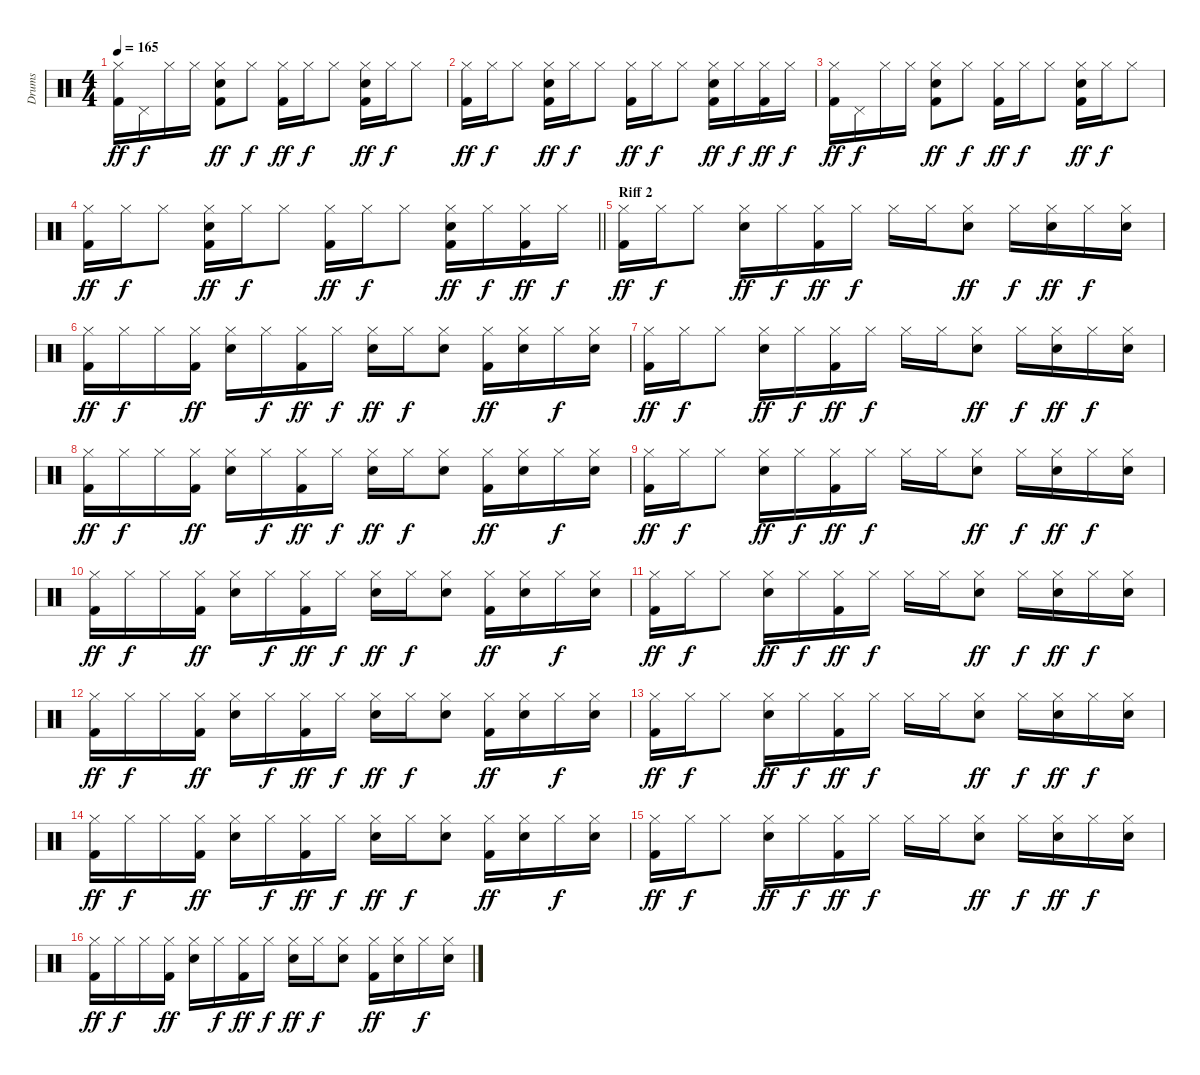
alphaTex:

\track ("Drums" "Drums") {instrument percussion}
\staff {score}
\articulation defaults
\ts (4 4)
\tempo 165
\clef neutral
\ks c
("Kick (hit) 2" "Hi-Hat (closed)").16{dy ff} "Pedal Hi-Hat (hit)".16{dy f} "Hi-Hat (closed)".16 "Hi-Hat (closed)".16 ("Kick (hit) 2" "Snare (hit) 2" "Hi-Hat (closed)").8{dy ff} "Hi-Hat (closed)".8{dy f} ("Kick (hit) 2" "Hi-Hat (closed)").16{dy ff} "Hi-Hat (closed)".16{dy f} "Hi-Hat (closed)".8 ("Kick (hit) 2" "Snare (hit) 2" "Hi-Hat (closed)").16{dy ff} "Hi-Hat (closed)".16{dy f} "Hi-Hat (closed)".8 |
("Kick (hit) 2" "Hi-Hat (closed)").16{dy ff} "Hi-Hat (closed)".16{dy f} "Hi-Hat (closed)".8 ("Kick (hit) 2" "Snare (hit) 2" "Hi-Hat (closed)").16{dy ff} "Hi-Hat (closed)".16{dy f} "Hi-Hat (closed)".8 ("Kick (hit) 2" "Hi-Hat (closed)").16{dy ff} "Hi-Hat (closed)".16{dy f} "Hi-Hat (closed)".8 ("Kick (hit) 2" "Snare (hit) 2" "Hi-Hat (closed)").16{dy ff} "Hi-Hat (closed)".16{dy f} ("Kick (hit) 2" "Hi-Hat (closed)").16{dy ff} "Hi-Hat (closed)".16{dy f} |
("Kick (hit) 2" "Hi-Hat (closed)").16{dy ff} "Pedal Hi-Hat (hit)".16{dy f} "Hi-Hat (closed)".16 "Hi-Hat (closed)".16 ("Kick (hit) 2" "Snare (hit) 2" "Hi-Hat (closed)").8{dy ff} "Hi-Hat (closed)".8{dy f} ("Kick (hit) 2" "Hi-Hat (closed)").16{dy ff} "Hi-Hat (closed)".16{dy f} "Hi-Hat (closed)".8 ("Kick (hit) 2" "Snare (hit) 2" "Hi-Hat (closed)").16{dy ff} "Hi-Hat (closed)".16{dy f} "Hi-Hat (closed)".8 |
\barLineRight lightlight
("Kick (hit) 2" "Hi-Hat (closed)").16{dy ff} "Hi-Hat (closed)".16{dy f} "Hi-Hat (closed)".8 ("Kick (hit) 2" "Snare (hit) 2" "Hi-Hat (closed)").16{dy ff} "Hi-Hat (closed)".16{dy f} "Hi-Hat (closed)".8 ("Kick (hit) 2" "Hi-Hat (closed)").16{dy ff} "Hi-Hat (closed)".16{dy f} "Hi-Hat (closed)".8 ("Kick (hit) 2" "Snare (hit) 2" "Hi-Hat (closed)").16{dy ff} "Hi-Hat (closed)".16{dy f} ("Kick (hit) 2" "Hi-Hat (closed)").16{dy ff} "Hi-Hat (closed)".16{dy f} |
\section ("" "Riff 2")
("Kick (hit) 2" "Hi-Hat (closed)").16{dy ff} "Hi-Hat (closed)".16{dy f} "Hi-Hat (closed)".8 ("Snare (hit) 2" "Hi-Hat (closed)").16{dy ff} "Hi-Hat (closed)".16{dy f} ("Kick (hit) 2" "Hi-Hat (closed)").16{dy ff} "Hi-Hat (closed)".16{dy f} "Hi-Hat (closed)".16 "Hi-Hat (closed)".16 ("Snare (hit) 2" "Hi-Hat (closed)").8{dy ff} "Hi-Hat (closed)".16{dy f} ("Snare (hit) 2" "Hi-Hat (closed)").16{dy ff} "Hi-Hat (closed)".16{dy f} ("Snare (hit) 2" "Hi-Hat (closed)").16 |
("Kick (hit) 2" "Hi-Hat (closed)").16{dy ff} "Hi-Hat (closed)".16{dy f} "Hi-Hat (closed)".16 ("Kick (hit) 2" "Hi-Hat (closed)").16{dy ff} ("Snare (hit) 2" "Hi-Hat (closed)").16 "Hi-Hat (closed)".16{dy f} ("Kick (hit) 2" "Hi-Hat (closed)").16{dy ff} "Hi-Hat (closed)".16{dy f} ("Snare (hit) 2" "Hi-Hat (closed)").16{dy ff} "Hi-Hat (closed)".16{dy f} ("Snare (hit) 2" "Hi-Hat (closed)").8 ("Kick (hit) 2" "Hi-Hat (closed)").16{dy ff} ("Snare (hit) 2" "Hi-Hat (closed)").16 "Hi-Hat (closed)".16{dy f} ("Snare (hit) 2" "Hi-Hat (closed)").16 |
("Kick (hit) 2" "Hi-Hat (closed)").16{dy ff} "Hi-Hat (closed)".16{dy f} "Hi-Hat (closed)".8 ("Snare (hit) 2" "Hi-Hat (closed)").16{dy ff} "Hi-Hat (closed)".16{dy f} ("Kick (hit) 2" "Hi-Hat (closed)").16{dy ff} "Hi-Hat (closed)".16{dy f} "Hi-Hat (closed)".16 "Hi-Hat (closed)".16 ("Snare (hit) 2" "Hi-Hat (closed)").8{dy ff} "Hi-Hat (closed)".16{dy f} ("Snare (hit) 2" "Hi-Hat (closed)").16{dy ff} "Hi-Hat (closed)".16{dy f} ("Snare (hit) 2" "Hi-Hat (closed)").16 |
("Kick (hit) 2" "Hi-Hat (closed)").16{dy ff} "Hi-Hat (closed)".16{dy f} "Hi-Hat (closed)".16 ("Kick (hit) 2" "Hi-Hat (closed)").16{dy ff} ("Snare (hit) 2" "Hi-Hat (closed)").16 "Hi-Hat (closed)".16{dy f} ("Kick (hit) 2" "Hi-Hat (closed)").16{dy ff} "Hi-Hat (closed)".16{dy f} ("Snare (hit) 2" "Hi-Hat (closed)").16{dy ff} "Hi-Hat (closed)".16{dy f} ("Snare (hit) 2" "Hi-Hat (closed)").8 ("Kick (hit) 2" "Hi-Hat (closed)").16{dy ff} ("Snare (hit) 2" "Hi-Hat (closed)").16 "Hi-Hat (closed)".16{dy f} ("Snare (hit) 2" "Hi-Hat (closed)").16 |
("Kick (hit) 2" "Hi-Hat (closed)").16{dy ff} "Hi-Hat (closed)".16{dy f} "Hi-Hat (closed)".8 ("Snare (hit) 2" "Hi-Hat (closed)").16{dy ff} "Hi-Hat (closed)".16{dy f} ("Kick (hit) 2" "Hi-Hat (closed)").16{dy ff} "Hi-Hat (closed)".16{dy f} "Hi-Hat (closed)".16 "Hi-Hat (closed)".16 ("Snare (hit) 2" "Hi-Hat (closed)").8{dy ff} "Hi-Hat (closed)".16{dy f} ("Snare (hit) 2" "Hi-Hat (closed)").16{dy ff} "Hi-Hat (closed)".16{dy f} ("Snare (hit) 2" "Hi-Hat (closed)").16 |
("Kick (hit) 2" "Hi-Hat (closed)").16{dy ff} "Hi-Hat (closed)".16{dy f} "Hi-Hat (closed)".16 ("Kick (hit) 2" "Hi-Hat (closed)").16{dy ff} ("Snare (hit) 2" "Hi-Hat (closed)").16 "Hi-Hat (closed)".16{dy f} ("Kick (hit) 2" "Hi-Hat (closed)").16{dy ff} "Hi-Hat (closed)".16{dy f} ("Snare (hit) 2" "Hi-Hat (closed)").16{dy ff} "Hi-Hat (closed)".16{dy f} ("Snare (hit) 2" "Hi-Hat (closed)").8 ("Kick (hit) 2" "Hi-Hat (closed)").16{dy ff} ("Snare (hit) 2" "Hi-Hat (closed)").16 "Hi-Hat (closed)".16{dy f} ("Snare (hit) 2" "Hi-Hat (closed)").16 |
("Kick (hit) 2" "Hi-Hat (closed)").16{dy ff} "Hi-Hat (closed)".16{dy f} "Hi-Hat (closed)".8 ("Snare (hit) 2" "Hi-Hat (closed)").16{dy ff} "Hi-Hat (closed)".16{dy f} ("Kick (hit) 2" "Hi-Hat (closed)").16{dy ff} "Hi-Hat (closed)".16{dy f} "Hi-Hat (closed)".16 "Hi-Hat (closed)".16 ("Snare (hit) 2" "Hi-Hat (closed)").8{dy ff} "Hi-Hat (closed)".16{dy f} ("Snare (hit) 2" "Hi-Hat (closed)").16{dy ff} "Hi-Hat (closed)".16{dy f} ("Snare (hit) 2" "Hi-Hat (closed)").16 |
("Kick (hit) 2" "Hi-Hat (closed)").16{dy ff} "Hi-Hat (closed)".16{dy f} "Hi-Hat (closed)".16 ("Kick (hit) 2" "Hi-Hat (closed)").16{dy ff} ("Snare (hit) 2" "Hi-Hat (closed)").16 "Hi-Hat (closed)".16{dy f} ("Kick (hit) 2" "Hi-Hat (closed)").16{dy ff} "Hi-Hat (closed)".16{dy f} ("Snare (hit) 2" "Hi-Hat (closed)").16{dy ff} "Hi-Hat (closed)".16{dy f} ("Snare (hit) 2" "Hi-Hat (closed)").8 ("Kick (hit) 2" "Hi-Hat (closed)").16{dy ff} ("Snare (hit) 2" "Hi-Hat (closed)").16 "Hi-Hat (closed)".16{dy f} ("Snare (hit) 2" "Hi-Hat (closed)").16 |
("Kick (hit) 2" "Hi-Hat (closed)").16{dy ff} "Hi-Hat (closed)".16{dy f} "Hi-Hat (closed)".8 ("Snare (hit) 2" "Hi-Hat (closed)").16{dy ff} "Hi-Hat (closed)".16{dy f} ("Kick (hit) 2" "Hi-Hat (closed)").16{dy ff} "Hi-Hat (closed)".16{dy f} "Hi-Hat (closed)".16 "Hi-Hat (closed)".16 ("Snare (hit) 2" "Hi-Hat (closed)").8{dy ff} "Hi-Hat (closed)".16{dy f} ("Snare (hit) 2" "Hi-Hat (closed)").16{dy ff} "Hi-Hat (closed)".16{dy f} ("Snare (hit) 2" "Hi-Hat (closed)").16 |
("Kick (hit) 2" "Hi-Hat (closed)").16{dy ff} "Hi-Hat (closed)".16{dy f} "Hi-Hat (closed)".16 ("Kick (hit) 2" "Hi-Hat (closed)").16{dy ff} ("Snare (hit) 2" "Hi-Hat (closed)").16 "Hi-Hat (closed)".16{dy f} ("Kick (hit) 2" "Hi-Hat (closed)").16{dy ff} "Hi-Hat (closed)".16{dy f} ("Snare (hit) 2" "Hi-Hat (closed)").16{dy ff} "Hi-Hat (closed)".16{dy f} ("Snare (hit) 2" "Hi-Hat (closed)").8 ("Kick (hit) 2" "Hi-Hat (closed)").16{dy ff} ("Snare (hit) 2" "Hi-Hat (closed)").16 "Hi-Hat (closed)".16{dy f} ("Snare (hit) 2" "Hi-Hat (closed)").16 |
("Kick (hit) 2" "Hi-Hat (closed)").16{dy ff} "Hi-Hat (closed)".16{dy f} "Hi-Hat (closed)".8 ("Snare (hit) 2" "Hi-Hat (closed)").16{dy ff} "Hi-Hat (closed)".16{dy f} ("Kick (hit) 2" "Hi-Hat (closed)").16{dy ff} "Hi-Hat (closed)".16{dy f} "Hi-Hat (closed)".16 "Hi-Hat (closed)".16 ("Snare (hit) 2" "Hi-Hat (closed)").8{dy ff} "Hi-Hat (closed)".16{dy f} ("Snare (hit) 2" "Hi-Hat (closed)").16{dy ff} "Hi-Hat (closed)".16{dy f} ("Snare (hit) 2" "Hi-Hat (closed)").16 |
("Kick (hit) 2" "Hi-Hat (closed)").16{dy ff} "Hi-Hat (closed)".16{dy f} "Hi-Hat (closed)".16 ("Kick (hit) 2" "Hi-Hat (closed)").16{dy ff} ("Snare (hit) 2" "Hi-Hat (closed)").16 "Hi-Hat (closed)".16{dy f} ("Kick (hit) 2" "Hi-Hat (closed)").16{dy ff} "Hi-Hat (closed)".16{dy f} ("Snare (hit) 2" "Hi-Hat (closed)").16{dy ff} "Hi-Hat (closed)".16{dy f} ("Snare (hit) 2" "Hi-Hat (closed)").8 ("Kick (hit) 2" "Hi-Hat (closed)").16{dy ff} ("Snare (hit) 2" "Hi-Hat (closed)").16 "Hi-Hat (closed)".16{dy f} ("Snare (hit) 2" "Hi-Hat (closed)").16
